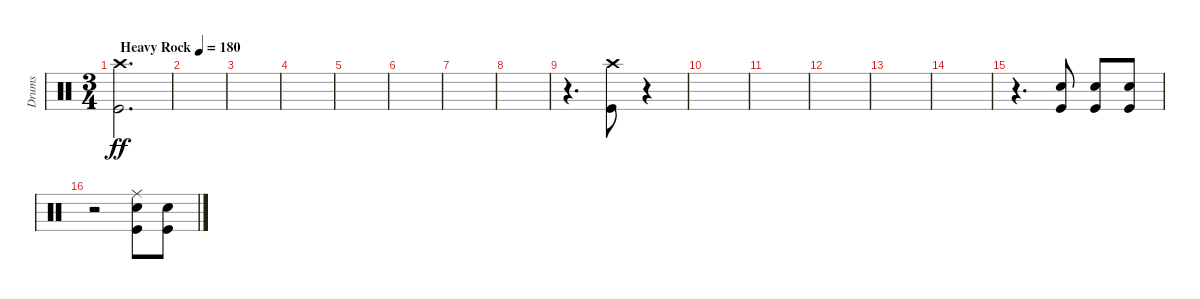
\track ("Drums" "Drums") {instrument percussion}
\staff {score}
\articulation defaults
\ts (3 4)
\tempo (180 "Heavy Rock")
\clef neutral
\ks c
("Crash high (hit)" "Kick (hit)").2{d dy ff} |
|
|
|
|
|
|
|
r.4{d} ("Crash high (hit)" "Kick (hit)").8 r.4 |
|
|
|
|
|
r.4{d} ("Snare (hit) 2" "Kick (hit)").8 ("Snare (hit) 2" "Kick (hit)").8 ("Snare (hit) 2" "Kick (hit)").8 |
r.2 ("Ride (middle)" "Snare (hit) 2" "Kick (hit)").8 ("Snare (hit) 2" "Kick (hit)").8
